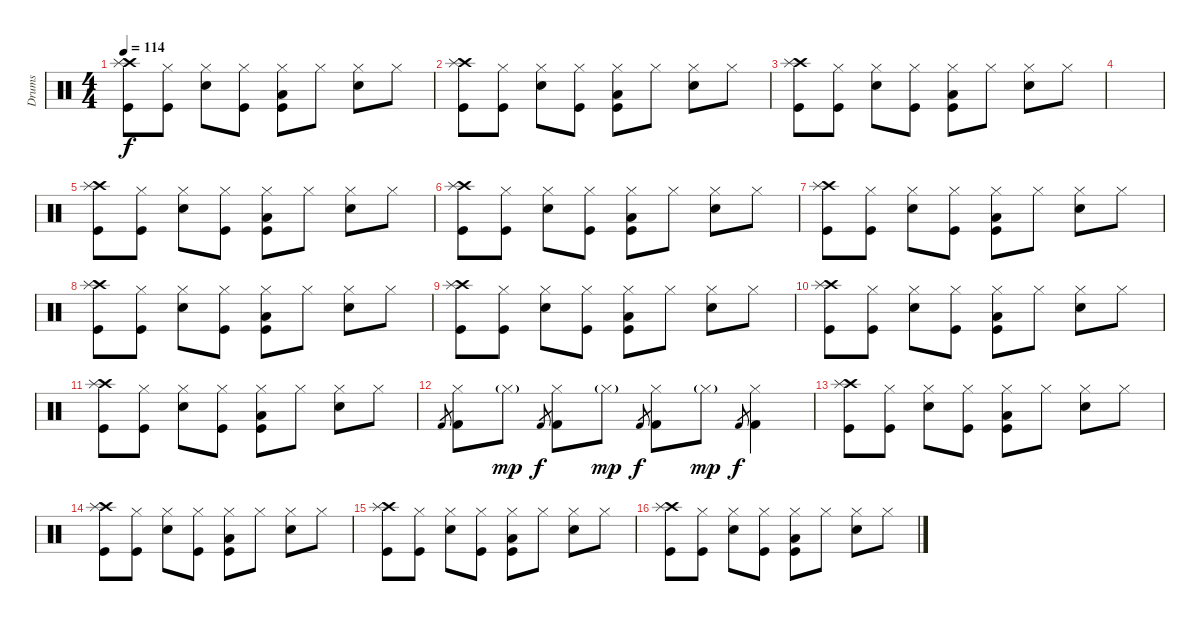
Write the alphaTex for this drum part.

\track ("Drums" "Drums") {instrument percussion}
\staff {score}
\articulation defaults
\ts (4 4)
\tempo 114
\clef neutral
\ks c
("Crash high (hit)" "Splash (hit)" "Kick (hit)").8{dy f} ("Hi-Hat (closed)" "Kick (hit)").8 ("Hi-Hat (closed)" "Snare (hit) 2").8 ("Hi-Hat (closed)" "Kick (hit)").8 ("Hi-Hat (closed)" "Low Floor Tom (hit)" "Kick (hit)").8 "Hi-Hat (closed)".8 ("Hi-Hat (closed)" "Snare (hit) 2").8 "Hi-Hat (closed)".8 |
("Crash high (hit)" "Splash (hit)" "Kick (hit)").8 ("Hi-Hat (closed)" "Kick (hit)").8 ("Hi-Hat (closed)" "Snare (hit) 2").8 ("Hi-Hat (closed)" "Kick (hit)").8 ("Hi-Hat (closed)" "Low Floor Tom (hit)" "Kick (hit)").8 "Hi-Hat (closed)".8 ("Hi-Hat (closed)" "Snare (hit) 2").8 "Hi-Hat (closed)".8 |
("Crash high (hit)" "Splash (hit)" "Kick (hit)").8 ("Hi-Hat (closed)" "Kick (hit)").8 ("Hi-Hat (closed)" "Snare (hit) 2").8 ("Hi-Hat (closed)" "Kick (hit)").8 ("Hi-Hat (closed)" "Low Floor Tom (hit)" "Kick (hit)").8 "Hi-Hat (closed)".8 ("Hi-Hat (closed)" "Snare (hit) 2").8 "Hi-Hat (closed)".8 |
|
("Crash high (hit)" "Splash (hit)" "Kick (hit)").8 ("Hi-Hat (closed)" "Kick (hit)").8 ("Hi-Hat (closed)" "Snare (hit) 2").8 ("Hi-Hat (closed)" "Kick (hit)").8 ("Hi-Hat (closed)" "Low Floor Tom (hit)" "Kick (hit)").8 "Hi-Hat (closed)".8 ("Hi-Hat (closed)" "Snare (hit) 2").8 "Hi-Hat (closed)".8 |
("Crash high (hit)" "Splash (hit)" "Kick (hit)").8 ("Hi-Hat (closed)" "Kick (hit)").8 ("Hi-Hat (closed)" "Snare (hit) 2").8 ("Hi-Hat (closed)" "Kick (hit)").8 ("Hi-Hat (closed)" "Low Floor Tom (hit)" "Kick (hit)").8 "Hi-Hat (closed)".8 ("Hi-Hat (closed)" "Snare (hit) 2").8 "Hi-Hat (closed)".8 |
("Crash high (hit)" "Splash (hit)" "Kick (hit)").8 ("Hi-Hat (closed)" "Kick (hit)").8 ("Hi-Hat (closed)" "Snare (hit) 2").8 ("Hi-Hat (closed)" "Kick (hit)").8 ("Hi-Hat (closed)" "Low Floor Tom (hit)" "Kick (hit)").8 "Hi-Hat (closed)".8 ("Hi-Hat (closed)" "Snare (hit) 2").8 "Hi-Hat (closed)".8 |
("Crash high (hit)" "Splash (hit)" "Kick (hit)").8 ("Hi-Hat (closed)" "Kick (hit)").8 ("Hi-Hat (closed)" "Snare (hit) 2").8 ("Hi-Hat (closed)" "Kick (hit)").8 ("Hi-Hat (closed)" "Low Floor Tom (hit)" "Kick (hit)").8 "Hi-Hat (closed)".8 ("Hi-Hat (closed)" "Snare (hit) 2").8 "Hi-Hat (closed)".8 |
("Crash high (hit)" "Splash (hit)" "Kick (hit)").8 ("Hi-Hat (closed)" "Kick (hit)").8 ("Hi-Hat (closed)" "Snare (hit) 2").8 ("Hi-Hat (closed)" "Kick (hit)").8 ("Hi-Hat (closed)" "Low Floor Tom (hit)" "Kick (hit)").8 "Hi-Hat (closed)".8 ("Hi-Hat (closed)" "Snare (hit) 2").8 "Hi-Hat (closed)".8 |
("Crash high (hit)" "Splash (hit)" "Kick (hit)").8 ("Hi-Hat (closed)" "Kick (hit)").8 ("Hi-Hat (closed)" "Snare (hit) 2").8 ("Hi-Hat (closed)" "Kick (hit)").8 ("Hi-Hat (closed)" "Low Floor Tom (hit)" "Kick (hit)").8 "Hi-Hat (closed)".8 ("Hi-Hat (closed)" "Snare (hit) 2").8 "Hi-Hat (closed)".8 |
("Crash high (hit)" "Splash (hit)" "Kick (hit)").8 ("Hi-Hat (closed)" "Kick (hit)").8 ("Hi-Hat (closed)" "Snare (hit) 2").8 ("Hi-Hat (closed)" "Kick (hit)").8 ("Hi-Hat (closed)" "Low Floor Tom (hit)" "Kick (hit)").8 "Hi-Hat (closed)".8 ("Hi-Hat (closed)" "Snare (hit) 2").8 "Hi-Hat (closed)".8 |
"Kick (hit) 2".8{gr} ("Hi-Hat (closed)" "Kick (hit) 2").8 "Hi-Hat (closed)"{g}.8{dy mp} "Kick (hit) 2".8{gr dy f} ("Hi-Hat (closed)" "Kick (hit) 2").8 "Hi-Hat (closed)"{g}.8{dy mp} "Kick (hit) 2".8{gr dy f} ("Hi-Hat (closed)" "Kick (hit) 2").8 "Hi-Hat (closed)"{g}.8{dy mp} "Kick (hit) 2".8{gr dy f} ("Hi-Hat (closed)" "Kick (hit) 2").4 |
("Crash high (hit)" "Splash (hit)" "Kick (hit)").8 ("Hi-Hat (closed)" "Kick (hit)").8 ("Hi-Hat (closed)" "Snare (hit) 2").8 ("Hi-Hat (closed)" "Kick (hit)").8 ("Hi-Hat (closed)" "Low Floor Tom (hit)" "Kick (hit)").8 "Hi-Hat (closed)".8 ("Hi-Hat (closed)" "Snare (hit) 2").8 "Hi-Hat (closed)".8 |
("Crash high (hit)" "Splash (hit)" "Kick (hit)").8 ("Hi-Hat (closed)" "Kick (hit)").8 ("Hi-Hat (closed)" "Snare (hit) 2").8 ("Hi-Hat (closed)" "Kick (hit)").8 ("Hi-Hat (closed)" "Low Floor Tom (hit)" "Kick (hit)").8 "Hi-Hat (closed)".8 ("Hi-Hat (closed)" "Snare (hit) 2").8 "Hi-Hat (closed)".8 |
("Crash high (hit)" "Splash (hit)" "Kick (hit)").8 ("Hi-Hat (closed)" "Kick (hit)").8 ("Hi-Hat (closed)" "Snare (hit) 2").8 ("Hi-Hat (closed)" "Kick (hit)").8 ("Hi-Hat (closed)" "Low Floor Tom (hit)" "Kick (hit)").8 "Hi-Hat (closed)".8 ("Hi-Hat (closed)" "Snare (hit) 2").8 "Hi-Hat (closed)".8 |
("Crash high (hit)" "Splash (hit)" "Kick (hit)").8 ("Hi-Hat (closed)" "Kick (hit)").8 ("Hi-Hat (closed)" "Snare (hit) 2").8 ("Hi-Hat (closed)" "Kick (hit)").8 ("Hi-Hat (closed)" "Low Floor Tom (hit)" "Kick (hit)").8 "Hi-Hat (closed)".8 ("Hi-Hat (closed)" "Snare (hit) 2").8 "Hi-Hat (closed)".8
